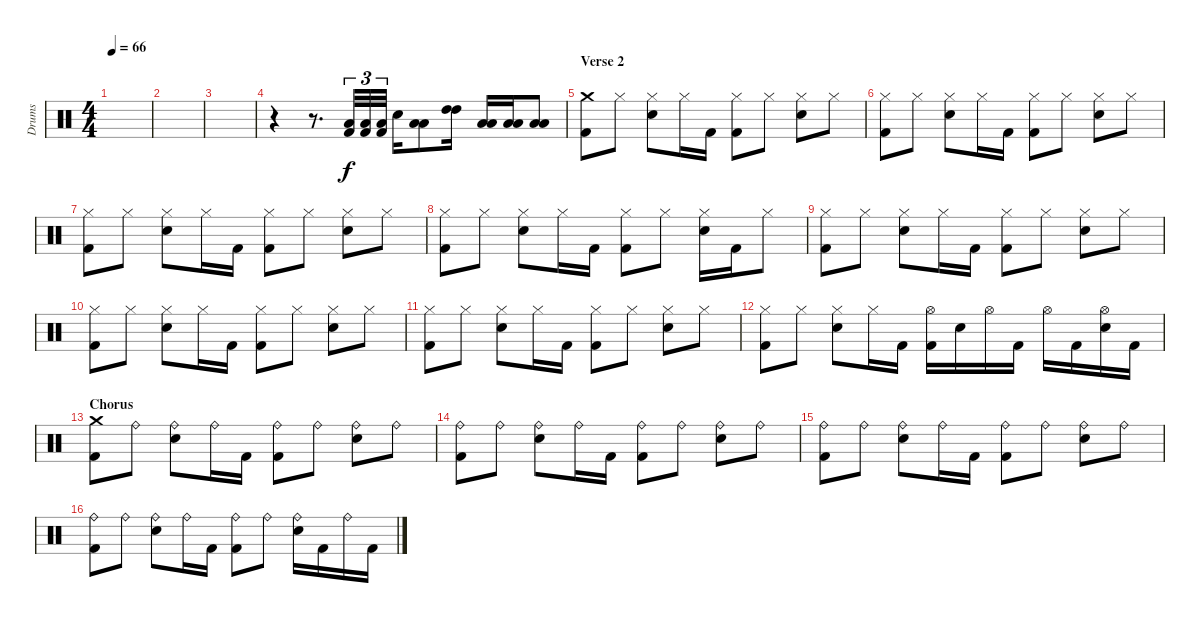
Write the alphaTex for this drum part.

\track ("Drums" "Drums") {instrument percussion}
\staff {score}
\articulation defaults
\ts (4 4)
\tempo 66
\clef neutral
\ks c
|
|
|
r.4 r.8{d} ("Low Floor Tom (hit)" "Kick (hit) 2").32{tu (3 2)} ("Low Floor Tom (hit)" "Kick (hit) 2").32{tu (3 2)} ("Low Floor Tom (hit)" "Kick (hit) 2").32{tu (3 2)} "Snare (hit) 2".16 ("Low Tom (hit)" "Low Tom (hit)").8 ("High Tom (hit)" "High Tom (hit)").16 ("Low Floor Tom (hit)" "Low Floor Tom (hit)").16 ("Low Floor Tom (hit)" "Low Floor Tom (hit)").16 ("Low Floor Tom (hit)" "Low Floor Tom (hit)").8 |
\section ("" "Verse 2")
("Crash medium (hit)" "Kick (hit) 2").8 "Hi-Hat (closed)".8 ("Hi-Hat (closed)" "Snare (hit) 2").8 "Hi-Hat (closed)".16 "Kick (hit) 2".16 ("Hi-Hat (closed)" "Kick (hit) 2").8 "Hi-Hat (closed)".8 ("Hi-Hat (closed)" "Snare (hit) 2").8 "Hi-Hat (closed)".8 |
("Hi-Hat (closed)" "Kick (hit) 2").8 "Hi-Hat (closed)".8 ("Hi-Hat (closed)" "Snare (hit) 2").8 "Hi-Hat (closed)".16 "Kick (hit) 2".16 ("Hi-Hat (closed)" "Kick (hit) 2").8 "Hi-Hat (closed)".8 ("Hi-Hat (closed)" "Snare (hit) 2").8 "Hi-Hat (closed)".8 |
("Hi-Hat (closed)" "Kick (hit) 2").8 "Hi-Hat (closed)".8 ("Hi-Hat (closed)" "Snare (hit) 2").8 "Hi-Hat (closed)".16 "Kick (hit) 2".16 ("Hi-Hat (closed)" "Kick (hit) 2").8 "Hi-Hat (closed)".8 ("Hi-Hat (closed)" "Snare (hit) 2").8 "Hi-Hat (closed)".8 |
("Hi-Hat (closed)" "Kick (hit) 2").8 "Hi-Hat (closed)".8 ("Hi-Hat (closed)" "Snare (hit) 2").8 "Hi-Hat (closed)".16 "Kick (hit) 2".16 ("Hi-Hat (closed)" "Kick (hit) 2").8 "Hi-Hat (closed)".8 ("Hi-Hat (closed)" "Snare (hit) 2").16 "Kick (hit) 2".16 "Hi-Hat (closed)".8 |
("Hi-Hat (closed)" "Kick (hit) 2").8 "Hi-Hat (closed)".8 ("Hi-Hat (closed)" "Snare (hit) 2").8 "Hi-Hat (closed)".16 "Kick (hit) 2".16 ("Hi-Hat (closed)" "Kick (hit) 2").8 "Hi-Hat (closed)".8 ("Hi-Hat (closed)" "Snare (hit) 2").8 "Hi-Hat (closed)".8 |
("Hi-Hat (closed)" "Kick (hit) 2").8 "Hi-Hat (closed)".8 ("Hi-Hat (closed)" "Snare (hit) 2").8 "Hi-Hat (closed)".16 "Kick (hit) 2".16 ("Hi-Hat (closed)" "Kick (hit) 2").8 "Hi-Hat (closed)".8 ("Hi-Hat (closed)" "Snare (hit) 2").8 "Hi-Hat (closed)".8 |
("Hi-Hat (closed)" "Kick (hit) 2").8 "Hi-Hat (closed)".8 ("Hi-Hat (closed)" "Snare (hit) 2").8 "Hi-Hat (closed)".16 "Kick (hit) 2".16 ("Hi-Hat (closed)" "Kick (hit) 2").8 "Hi-Hat (closed)".8 ("Hi-Hat (closed)" "Snare (hit) 2").8 "Hi-Hat (closed)".8 |
("Hi-Hat (closed)" "Kick (hit) 2").8 "Hi-Hat (closed)".8 ("Hi-Hat (closed)" "Snare (hit) 2").8 "Hi-Hat (closed)".16 "Kick (hit) 2".16 ("Hi-Hat (open)" "Kick (hit) 2").16 "Snare (hit) 2".16 "Hi-Hat (open)".16 "Kick (hit) 2".16 "Hi-Hat (open)".16 "Kick (hit) 2".16 ("Hi-Hat (open)" "Snare (hit) 2").16 "Kick (hit) 2".16 |
\section ("" "Chorus")
("Crash medium (hit)" "Kick (hit) 2").8 "Ride (bell)".8 ("Ride (bell)" "Snare (hit) 2").8 "Ride (bell)".16 "Kick (hit) 2".16 ("Ride (bell)" "Kick (hit) 2").8 "Ride (bell)".8 ("Ride (bell)" "Snare (hit) 2").8 "Ride (bell)".8 |
("Ride (bell)" "Kick (hit) 2").8 "Ride (bell)".8 ("Ride (bell)" "Snare (hit) 2").8 "Ride (bell)".16 "Kick (hit) 2".16 ("Ride (bell)" "Kick (hit) 2").8 "Ride (bell)".8 ("Ride (bell)" "Snare (hit) 2").8 "Ride (bell)".8 |
("Ride (bell)" "Kick (hit) 2").8 "Ride (bell)".8 ("Ride (bell)" "Snare (hit) 2").8 "Ride (bell)".16 "Kick (hit) 2".16 ("Ride (bell)" "Kick (hit) 2").8 "Ride (bell)".8 ("Ride (bell)" "Snare (hit) 2").8 "Ride (bell)".8 |
("Ride (bell)" "Kick (hit) 2").8 "Ride (bell)".8 ("Ride (bell)" "Snare (hit) 2").8 "Ride (bell)".16 "Kick (hit) 2".16 ("Ride (bell)" "Kick (hit) 2").8 "Ride (bell)".8 ("Ride (bell)" "Snare (hit) 2").16 "Kick (hit) 2".16 "Ride (bell)".16 "Kick (hit) 2".16
